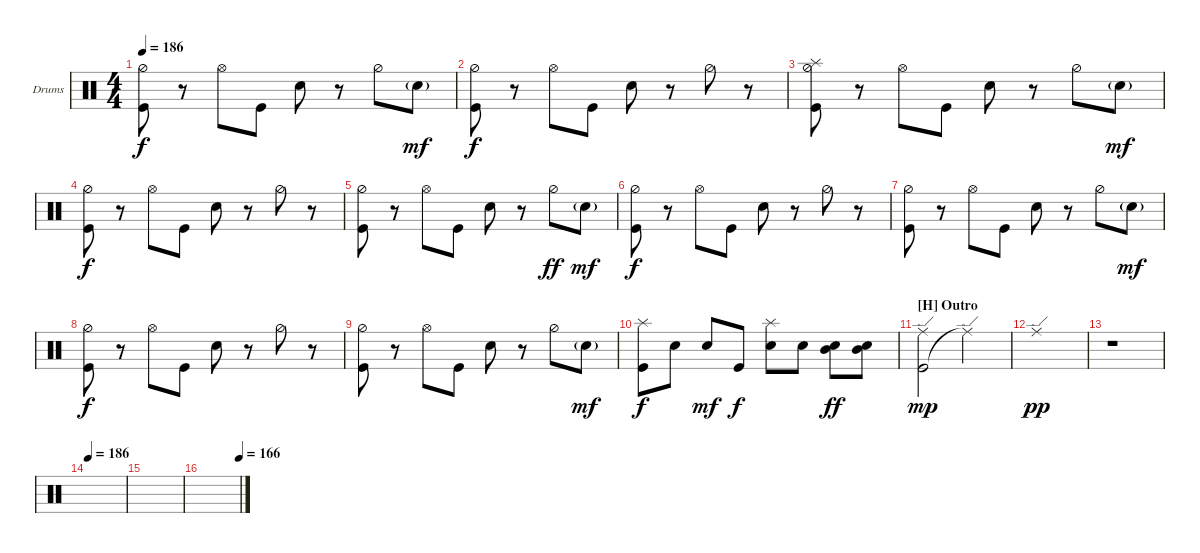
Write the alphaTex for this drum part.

\defaultSystemsLayout 4
\bracketExtendMode groupsimilarinstruments
\firstSystemTrackNameOrientation horizontal
\otherSystemsTrackNameOrientation horizontal
\track ("Drumkit" "Drums") {instrument percussion}
\staff {score}
\articulation defaults
\ts (4 4)
\tempo 186
\clef neutral
\ks c
("Hi-Hat (half)" "Kick (hit)").8{dy f} r.8 "Hi-Hat (open)".8 "Kick (hit)".8 "Snare (hit) 2".8 r.8 "Hi-Hat (half)".8 "Snare (hit) 2"{g}.8{dy mf} |
("Hi-Hat (half)" "Kick (hit)").8{dy f} r.8 "Hi-Hat (open)".8 "Kick (hit)".8 "Snare (hit) 2".8 r.8 "Hi-Hat (half)".8 r.8 |
("Hi-Hat (half)" "Kick (hit)" "Splash (hit)").8 r.8 "Hi-Hat (open)".8 "Kick (hit)".8 "Snare (hit) 2".8 r.8 "Hi-Hat (half)".8 "Snare (hit) 2"{g}.8{dy mf} |
("Hi-Hat (half)" "Kick (hit)").8{dy f} r.8 "Hi-Hat (open)".8 "Kick (hit)".8 "Snare (hit) 2".8 r.8 "Hi-Hat (half)".8 r.8 |
("Hi-Hat (half)" "Kick (hit)").8 r.8 "Hi-Hat (open)".8 "Kick (hit)".8 "Snare (hit) 2".8 r.8 "Hi-Hat (half)".8{dy ff} "Snare (hit) 2"{g}.8{dy mf} |
("Hi-Hat (half)" "Kick (hit)").8{dy f} r.8 "Hi-Hat (open)".8 "Kick (hit)".8 "Snare (hit) 2".8 r.8 "Hi-Hat (half)".8 r.8 |
("Hi-Hat (half)" "Kick (hit)").8 r.8 "Hi-Hat (open)".8 "Kick (hit)".8 "Snare (hit) 2".8 r.8 "Hi-Hat (half)".8 "Snare (hit) 2"{g}.8{dy mf} |
("Hi-Hat (half)" "Kick (hit)").8{dy f} r.8 "Hi-Hat (open)".8 "Kick (hit)".8 "Snare (hit) 2".8 r.8 "Hi-Hat (half)".8 r.8 |
("Hi-Hat (half)" "Kick (hit)").8 r.8 "Hi-Hat (open)".8 "Kick (hit)".8 "Snare (hit) 2".8 r.8 "Hi-Hat (half)".8 "Snare (hit) 2"{g}.8{dy mf} |
("Kick (hit)" "Splash (hit)").8{dy f} "Snare (hit) 2".8 "Snare (hit) 2".8{dy mf} "Kick (hit)".8{dy f} ("Snare (hit) 2" "Splash (hit)").8 "Snare (hit) 2".8 ("Mid Tom (hit)" "Snare (hit) 2").8{dy ff} ("Mid Tom (hit)" "Snare (hit) 2").8 |
\section ("H" "Outro")
("Kick (hit)" "Ride (edge)").2{dy mp} "Ride (edge)"{t}.2 |
"Ride (edge)".1{dy pp} |
r.1 |
\tempo 186
|
|
\tempo (166 1)
